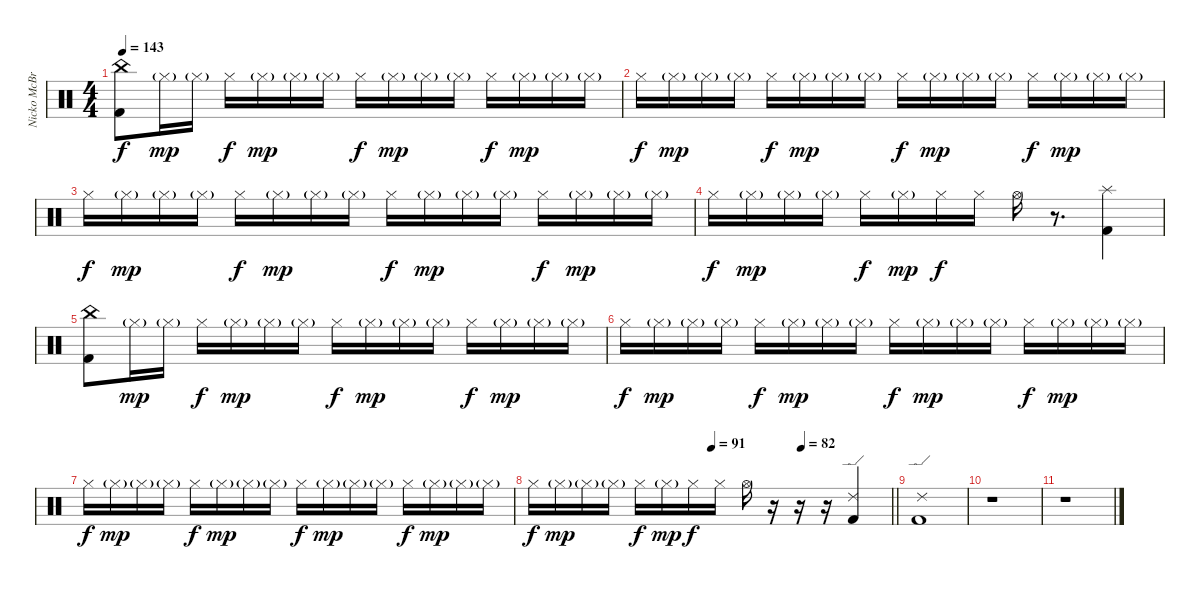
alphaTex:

\track ("Nicko McBrian" "Nicko McBr") {instrument percussion}
\staff {score}
\articulation defaults
\ts (4 4)
\tempo 143
\clef neutral
\ks c
("China (hit)" "Kick (hit) 2").8{dy f} "Hi-Hat (closed)"{g}.16{dy mp} "Hi-Hat (closed)"{g}.16 "Hi-Hat (closed)".16{dy f} "Hi-Hat (closed)"{g}.16{dy mp} "Hi-Hat (closed)"{g}.16 "Hi-Hat (closed)"{g}.16 "Hi-Hat (closed)".16{dy f} "Hi-Hat (closed)"{g}.16{dy mp} "Hi-Hat (closed)"{g}.16 "Hi-Hat (closed)"{g}.16 "Hi-Hat (closed)".16{dy f} "Hi-Hat (closed)"{g}.16{dy mp} "Hi-Hat (closed)"{g}.16 "Hi-Hat (closed)"{g}.16 |
"Hi-Hat (closed)".16{dy f} "Hi-Hat (closed)"{g}.16{dy mp} "Hi-Hat (closed)"{g}.16 "Hi-Hat (closed)"{g}.16 "Hi-Hat (closed)".16{dy f} "Hi-Hat (closed)"{g}.16{dy mp} "Hi-Hat (closed)"{g}.16 "Hi-Hat (closed)"{g}.16 "Hi-Hat (closed)".16{dy f} "Hi-Hat (closed)"{g}.16{dy mp} "Hi-Hat (closed)"{g}.16 "Hi-Hat (closed)"{g}.16 "Hi-Hat (closed)".16{dy f} "Hi-Hat (closed)"{g}.16{dy mp} "Hi-Hat (closed)"{g}.16 "Hi-Hat (closed)"{g}.16 |
"Hi-Hat (closed)".16{dy f} "Hi-Hat (closed)"{g}.16{dy mp} "Hi-Hat (closed)"{g}.16 "Hi-Hat (closed)"{g}.16 "Hi-Hat (closed)".16{dy f} "Hi-Hat (closed)"{g}.16{dy mp} "Hi-Hat (closed)"{g}.16 "Hi-Hat (closed)"{g}.16 "Hi-Hat (closed)".16{dy f} "Hi-Hat (closed)"{g}.16{dy mp} "Hi-Hat (closed)"{g}.16 "Hi-Hat (closed)"{g}.16 "Hi-Hat (closed)".16{dy f} "Hi-Hat (closed)"{g}.16{dy mp} "Hi-Hat (closed)"{g}.16 "Hi-Hat (closed)"{g}.16 |
"Hi-Hat (closed)".16{dy f} "Hi-Hat (closed)"{g}.16{dy mp} "Hi-Hat (closed)"{g}.16 "Hi-Hat (closed)"{g}.16 "Hi-Hat (closed)".16{dy f} "Hi-Hat (closed)"{g}.16{dy mp} "Hi-Hat (closed)".16{dy f} "Hi-Hat (closed)".16 "Hi-Hat (open)".16 r.8{d} ("Splash (hit)" "Kick (hit) 2").4 |
("China (hit)" "Kick (hit) 2").8 "Hi-Hat (closed)"{g}.16{dy mp} "Hi-Hat (closed)"{g}.16 "Hi-Hat (closed)".16{dy f} "Hi-Hat (closed)"{g}.16{dy mp} "Hi-Hat (closed)"{g}.16 "Hi-Hat (closed)"{g}.16 "Hi-Hat (closed)".16{dy f} "Hi-Hat (closed)"{g}.16{dy mp} "Hi-Hat (closed)"{g}.16 "Hi-Hat (closed)"{g}.16 "Hi-Hat (closed)".16{dy f} "Hi-Hat (closed)"{g}.16{dy mp} "Hi-Hat (closed)"{g}.16 "Hi-Hat (closed)"{g}.16 |
"Hi-Hat (closed)".16{dy f} "Hi-Hat (closed)"{g}.16{dy mp} "Hi-Hat (closed)"{g}.16 "Hi-Hat (closed)"{g}.16 "Hi-Hat (closed)".16{dy f} "Hi-Hat (closed)"{g}.16{dy mp} "Hi-Hat (closed)"{g}.16 "Hi-Hat (closed)"{g}.16 "Hi-Hat (closed)".16{dy f} "Hi-Hat (closed)"{g}.16{dy mp} "Hi-Hat (closed)"{g}.16 "Hi-Hat (closed)"{g}.16 "Hi-Hat (closed)".16{dy f} "Hi-Hat (closed)"{g}.16{dy mp} "Hi-Hat (closed)"{g}.16 "Hi-Hat (closed)"{g}.16 |
"Hi-Hat (closed)".16{dy f} "Hi-Hat (closed)"{g}.16{dy mp} "Hi-Hat (closed)"{g}.16 "Hi-Hat (closed)"{g}.16 "Hi-Hat (closed)".16{dy f} "Hi-Hat (closed)"{g}.16{dy mp} "Hi-Hat (closed)"{g}.16 "Hi-Hat (closed)"{g}.16 "Hi-Hat (closed)".16{dy f} "Hi-Hat (closed)"{g}.16{dy mp} "Hi-Hat (closed)"{g}.16 "Hi-Hat (closed)"{g}.16 "Hi-Hat (closed)".16{dy f} "Hi-Hat (closed)"{g}.16{dy mp} "Hi-Hat (closed)"{g}.16 "Hi-Hat (closed)"{g}.16 |
\tempo (91 0.5)
\tempo (82 0.75)
\barLineRight lightlight "Hi-Hat (closed)".16{dy f} "Hi-Hat (closed)"{g}.16{dy mp} "Hi-Hat (closed)"{g}.16 "Hi-Hat (closed)"{g}.16 "Hi-Hat (closed)".16{dy f} "Hi-Hat (closed)"{g}.16{dy mp} "Hi-Hat (closed)".16{dy f} "Hi-Hat (closed)".16 "Hi-Hat (open)".16
r.16 r.16 r.16 ("Ride (edge) 2" "Kick (hit) 2").4 |
("Ride (edge) 2" "Kick (hit) 2").1 |
r.1 |
r.1
